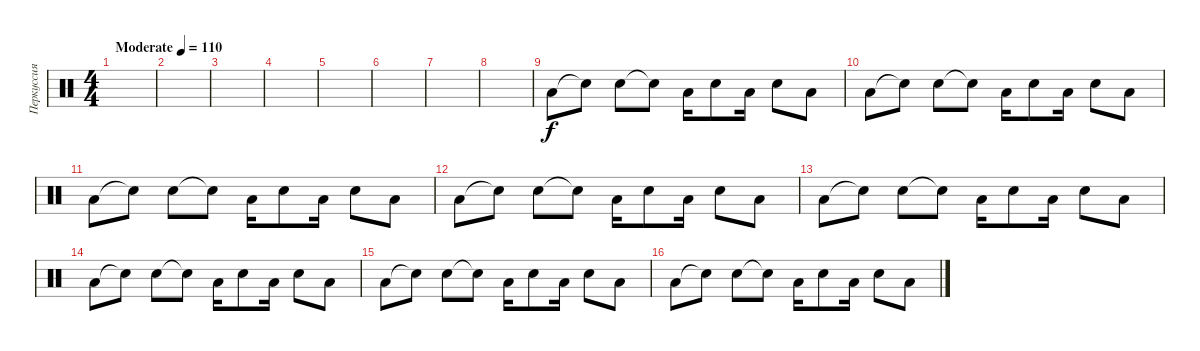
\track ("Перкуссия" "Перкуссия") {instrument percussion}
\staff {score}
\articulation defaults
\ts (4 4)
\tempo (110 "Moderate")
\clef neutral
\ks c
|
|
|
|
|
|
|
|
"Low Floor Tom (hit)".8 "Snare (hit)"{t}.8 "Electric Snare (hit)".8 "Snare (hit)"{t}.8 "Low Floor Tom (hit)".16 "Electric Snare (hit)".8 "Low Floor Tom (hit)".16 "Electric Snare (hit)".8 "Low Floor Tom (hit)".8 |
"Low Floor Tom (hit)".8 "Snare (hit)"{t}.8 "Electric Snare (hit)".8 "Snare (hit)"{t}.8 "Low Floor Tom (hit)".16 "Electric Snare (hit)".8 "Low Floor Tom (hit)".16 "Electric Snare (hit)".8 "Low Floor Tom (hit)".8 |
"Low Floor Tom (hit)".8 "Snare (hit)"{t}.8 "Electric Snare (hit)".8 "Snare (hit)"{t}.8 "Low Floor Tom (hit)".16 "Electric Snare (hit)".8 "Low Floor Tom (hit)".16 "Electric Snare (hit)".8 "Low Floor Tom (hit)".8 |
"Low Floor Tom (hit)".8 "Snare (hit)"{t}.8 "Electric Snare (hit)".8 "Snare (hit)"{t}.8 "Low Floor Tom (hit)".16 "Electric Snare (hit)".8 "Low Floor Tom (hit)".16 "Electric Snare (hit)".8 "Low Floor Tom (hit)".8 |
"Low Floor Tom (hit)".8 "Snare (hit)"{t}.8 "Electric Snare (hit)".8 "Snare (hit)"{t}.8 "Low Floor Tom (hit)".16 "Electric Snare (hit)".8 "Low Floor Tom (hit)".16 "Electric Snare (hit)".8 "Low Floor Tom (hit)".8 |
"Low Floor Tom (hit)".8 "Snare (hit)"{t}.8 "Electric Snare (hit)".8 "Snare (hit)"{t}.8 "Low Floor Tom (hit)".16 "Electric Snare (hit)".8 "Low Floor Tom (hit)".16 "Electric Snare (hit)".8 "Low Floor Tom (hit)".8 |
"Low Floor Tom (hit)".8 "Snare (hit)"{t}.8 "Electric Snare (hit)".8 "Snare (hit)"{t}.8 "Low Floor Tom (hit)".16 "Electric Snare (hit)".8 "Low Floor Tom (hit)".16 "Electric Snare (hit)".8 "Low Floor Tom (hit)".8 |
"Low Floor Tom (hit)".8 "Snare (hit)"{t}.8 "Electric Snare (hit)".8 "Snare (hit)"{t}.8 "Low Floor Tom (hit)".16 "Electric Snare (hit)".8 "Low Floor Tom (hit)".16 "Electric Snare (hit)".8 "Low Floor Tom (hit)".8
